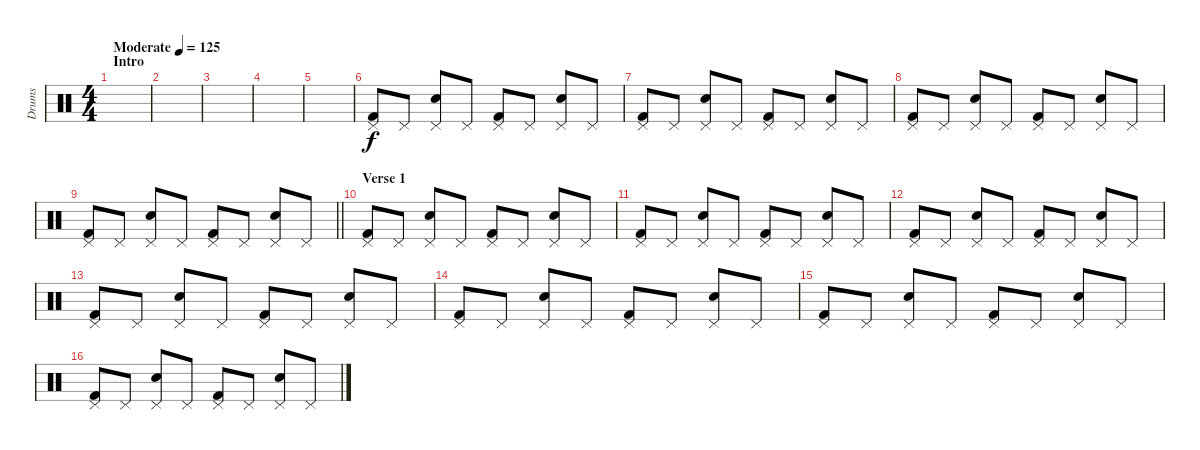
\track ("Drums" "Drums") {instrument percussion}
\staff {score}
\articulation defaults
\ts (4 4)
\section ("" "Intro")
\tempo (125 "Moderate")
\clef neutral
\ks c
|
|
|
|
|
("Pedal Hi-Hat (hit)" "Kick (hit) 2").8 "Pedal Hi-Hat (hit)".8 ("Pedal Hi-Hat (hit)" "Snare (hit) 2").8 "Pedal Hi-Hat (hit)".8 ("Pedal Hi-Hat (hit)" "Kick (hit) 2").8 "Pedal Hi-Hat (hit)".8 ("Pedal Hi-Hat (hit)" "Snare (hit) 2").8 "Pedal Hi-Hat (hit)".8 |
("Pedal Hi-Hat (hit)" "Kick (hit) 2").8 "Pedal Hi-Hat (hit)".8 ("Pedal Hi-Hat (hit)" "Snare (hit) 2").8 "Pedal Hi-Hat (hit)".8 ("Pedal Hi-Hat (hit)" "Kick (hit) 2").8 "Pedal Hi-Hat (hit)".8 ("Pedal Hi-Hat (hit)" "Snare (hit) 2").8 "Pedal Hi-Hat (hit)".8 |
("Pedal Hi-Hat (hit)" "Kick (hit) 2").8 "Pedal Hi-Hat (hit)".8 ("Pedal Hi-Hat (hit)" "Snare (hit) 2").8 "Pedal Hi-Hat (hit)".8 ("Pedal Hi-Hat (hit)" "Kick (hit) 2").8 "Pedal Hi-Hat (hit)".8 ("Pedal Hi-Hat (hit)" "Snare (hit) 2").8 "Pedal Hi-Hat (hit)".8 |
\barLineRight lightlight
("Pedal Hi-Hat (hit)" "Kick (hit) 2").8 "Pedal Hi-Hat (hit)".8 ("Pedal Hi-Hat (hit)" "Snare (hit) 2").8 "Pedal Hi-Hat (hit)".8 ("Pedal Hi-Hat (hit)" "Kick (hit) 2").8 "Pedal Hi-Hat (hit)".8 ("Pedal Hi-Hat (hit)" "Snare (hit) 2").8 "Pedal Hi-Hat (hit)".8 |
\section ("" "Verse 1")
("Pedal Hi-Hat (hit)" "Kick (hit) 2").8 "Pedal Hi-Hat (hit)".8 ("Pedal Hi-Hat (hit)" "Snare (hit) 2").8 "Pedal Hi-Hat (hit)".8 ("Pedal Hi-Hat (hit)" "Kick (hit) 2").8 "Pedal Hi-Hat (hit)".8 ("Pedal Hi-Hat (hit)" "Snare (hit) 2").8 "Pedal Hi-Hat (hit)".8 |
("Pedal Hi-Hat (hit)" "Kick (hit) 2").8 "Pedal Hi-Hat (hit)".8 ("Pedal Hi-Hat (hit)" "Snare (hit) 2").8 "Pedal Hi-Hat (hit)".8 ("Pedal Hi-Hat (hit)" "Kick (hit) 2").8 "Pedal Hi-Hat (hit)".8 ("Pedal Hi-Hat (hit)" "Snare (hit) 2").8 "Pedal Hi-Hat (hit)".8 |
("Pedal Hi-Hat (hit)" "Kick (hit) 2").8 "Pedal Hi-Hat (hit)".8 ("Pedal Hi-Hat (hit)" "Snare (hit) 2").8 "Pedal Hi-Hat (hit)".8 ("Pedal Hi-Hat (hit)" "Kick (hit) 2").8 "Pedal Hi-Hat (hit)".8 ("Pedal Hi-Hat (hit)" "Snare (hit) 2").8 "Pedal Hi-Hat (hit)".8 |
("Pedal Hi-Hat (hit)" "Kick (hit) 2").8 "Pedal Hi-Hat (hit)".8 ("Pedal Hi-Hat (hit)" "Snare (hit) 2").8 "Pedal Hi-Hat (hit)".8 ("Pedal Hi-Hat (hit)" "Kick (hit) 2").8 "Pedal Hi-Hat (hit)".8 ("Pedal Hi-Hat (hit)" "Snare (hit) 2").8 "Pedal Hi-Hat (hit)".8 |
("Pedal Hi-Hat (hit)" "Kick (hit) 2").8 "Pedal Hi-Hat (hit)".8 ("Pedal Hi-Hat (hit)" "Snare (hit) 2").8 "Pedal Hi-Hat (hit)".8 ("Pedal Hi-Hat (hit)" "Kick (hit) 2").8 "Pedal Hi-Hat (hit)".8 ("Pedal Hi-Hat (hit)" "Snare (hit) 2").8 "Pedal Hi-Hat (hit)".8 |
("Pedal Hi-Hat (hit)" "Kick (hit) 2").8 "Pedal Hi-Hat (hit)".8 ("Pedal Hi-Hat (hit)" "Snare (hit) 2").8 "Pedal Hi-Hat (hit)".8 ("Pedal Hi-Hat (hit)" "Kick (hit) 2").8 "Pedal Hi-Hat (hit)".8 ("Pedal Hi-Hat (hit)" "Snare (hit) 2").8 "Pedal Hi-Hat (hit)".8 |
("Pedal Hi-Hat (hit)" "Kick (hit) 2").8 "Pedal Hi-Hat (hit)".8 ("Pedal Hi-Hat (hit)" "Snare (hit) 2").8 "Pedal Hi-Hat (hit)".8 ("Pedal Hi-Hat (hit)" "Kick (hit) 2").8 "Pedal Hi-Hat (hit)".8 ("Pedal Hi-Hat (hit)" "Snare (hit) 2").8 "Pedal Hi-Hat (hit)".8
